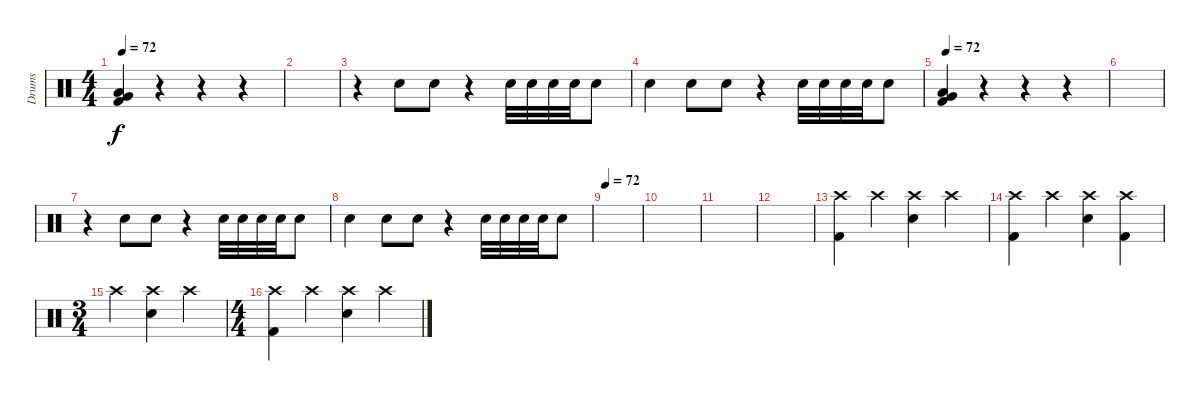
\track ("Drums" "Drums") {instrument percussion}
\staff {score}
\articulation defaults
\ts (4 4)
\tempo 72
\clef neutral
\ks c
("Very Low Tom (hit)" "Low Floor Tom (hit)" "Kick (hit) 2").4{dy f} r.4 r.4 r.4 |
|
r.4 "Electric Snare (hit)".8 "Electric Snare (hit)".8 r.4 "Electric Snare (hit)".32 "Electric Snare (hit)".32 "Electric Snare (hit)".32 "Electric Snare (hit)".32 "Electric Snare (hit)".8 |
"Electric Snare (hit)".4 "Electric Snare (hit)".8 "Electric Snare (hit)".8 r.4 "Electric Snare (hit)".32 "Electric Snare (hit)".32 "Electric Snare (hit)".32 "Electric Snare (hit)".32 "Electric Snare (hit)".8 |
\tempo 72
("Very Low Tom (hit)" "Low Floor Tom (hit)" "Kick (hit) 2").4 r.4 r.4 r.4 |
|
r.4 "Electric Snare (hit)".8 "Electric Snare (hit)".8 r.4 "Electric Snare (hit)".32 "Electric Snare (hit)".32 "Electric Snare (hit)".32 "Electric Snare (hit)".32 "Electric Snare (hit)".8 |
"Electric Snare (hit)".4 "Electric Snare (hit)".8 "Electric Snare (hit)".8 r.4 "Electric Snare (hit)".32 "Electric Snare (hit)".32 "Electric Snare (hit)".32 "Electric Snare (hit)".32 "Electric Snare (hit)".8 |
\tempo 72
|
|
|
|
("Crash high (hit)" "Kick (hit) 2").4 "Crash high (hit)".4 ("Crash high (hit)" "Snare (hit) 2").4 "Crash high (hit)".4 |
("Crash high (hit)" "Kick (hit) 2").4 "Crash high (hit)".4 ("Crash high (hit)" "Snare (hit) 2").4 ("Crash high (hit)" "Kick (hit) 2").4 |
\ts (3 4)
"Crash high (hit)".4 ("Crash high (hit)" "Snare (hit) 2").4 "Crash high (hit)".4 |
\ts (4 4)
("Crash high (hit)" "Kick (hit) 2").4 "Crash high (hit)".4 ("Crash high (hit)" "Snare (hit) 2").4 "Crash high (hit)".4
